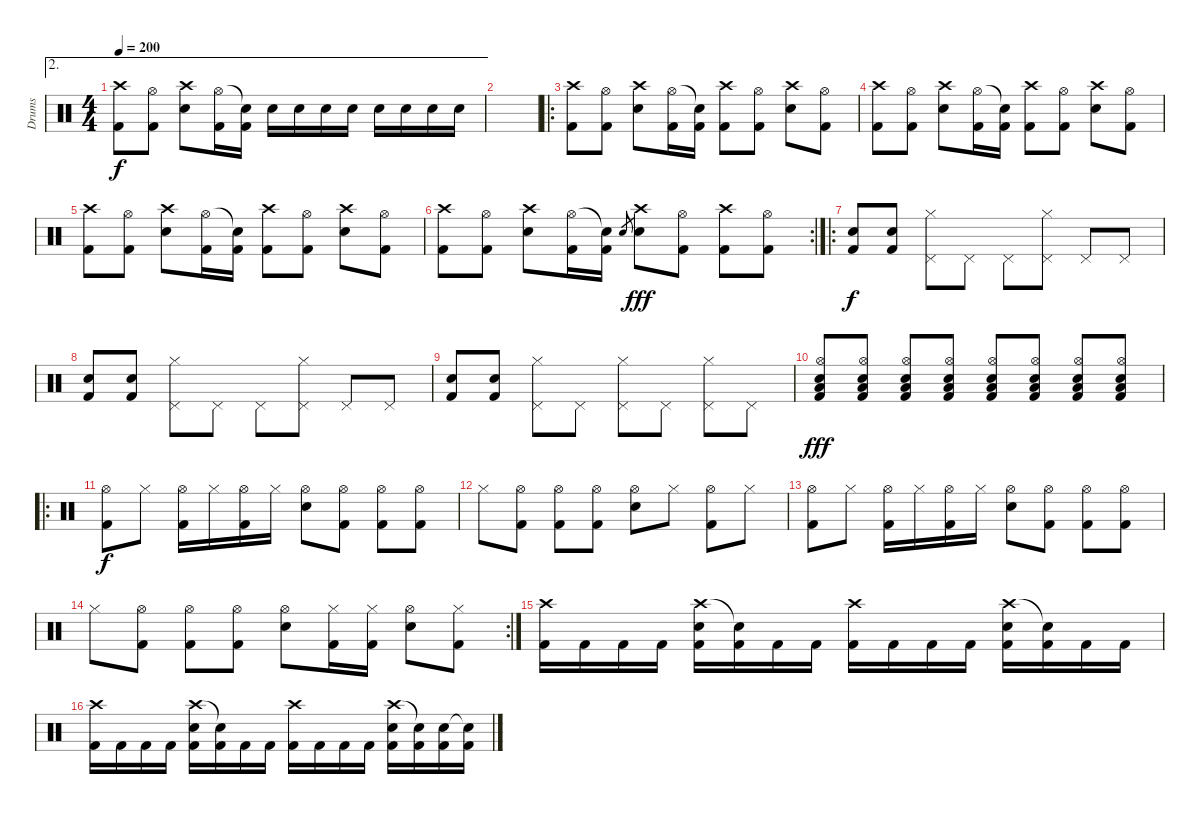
\track ("Drums" "Drums") {instrument percussion}
\staff {score}
\articulation defaults
\ae 2
\ts (4 4)
\tempo 200
\clef neutral
\ks c
("Crash high (hit)" "Kick (hit) 2").8{dy f} ("Hi-Hat (open)" "Kick (hit) 2").8 ("Crash high (hit)" "Electric Snare (hit)").8 ("Hi-Hat (open)" "Kick (hit) 2").16 ("Snare (hit)"{t} "Kick (hit) 2").16 "Electric Snare (hit)".16 "Electric Snare (hit)".16 "Electric Snare (hit)".16 "Electric Snare (hit)".16 "Electric Snare (hit)".16 "Electric Snare (hit)".16 "Electric Snare (hit)".16 "Electric Snare (hit)".16 |
|
\ro
("Crash high (hit)" "Kick (hit) 2").8 ("Hi-Hat (open)" "Kick (hit) 2").8 ("Crash high (hit)" "Electric Snare (hit)").8 ("Hi-Hat (open)" "Kick (hit) 2").16 ("Snare (hit)"{t} "Kick (hit) 2").16 ("Crash high (hit)" "Kick (hit) 2").8 ("Hi-Hat (open)" "Kick (hit) 2").8 ("Crash high (hit)" "Electric Snare (hit)").8 ("Hi-Hat (open)" "Kick (hit) 2").8 |
("Crash high (hit)" "Kick (hit) 2").8 ("Hi-Hat (open)" "Kick (hit) 2").8 ("Crash high (hit)" "Electric Snare (hit)").8 ("Hi-Hat (open)" "Kick (hit) 2").16 ("Snare (hit)"{t} "Kick (hit) 2").16 ("Crash high (hit)" "Kick (hit) 2").8 ("Hi-Hat (open)" "Kick (hit) 2").8 ("Crash high (hit)" "Electric Snare (hit)").8 ("Hi-Hat (open)" "Kick (hit) 2").8 |
("Crash high (hit)" "Kick (hit) 2").8 ("Hi-Hat (open)" "Kick (hit) 2").8 ("Crash high (hit)" "Electric Snare (hit)").8 ("Hi-Hat (open)" "Kick (hit) 2").16 ("Snare (hit)"{t} "Kick (hit) 2").16 ("Crash high (hit)" "Kick (hit) 2").8 ("Hi-Hat (open)" "Kick (hit) 2").8 ("Crash high (hit)" "Electric Snare (hit)").8 ("Hi-Hat (open)" "Kick (hit) 2").8 |
\rc 2
("Crash high (hit)" "Kick (hit) 2").8 ("Hi-Hat (open)" "Kick (hit) 2").8 ("Crash high (hit)" "Electric Snare (hit)").8 ("Hi-Hat (open)" "Kick (hit) 2").16 ("Snare (hit)"{t} "Kick (hit) 2").16 "Electric Snare (hit)".8{gr} ("Crash high (hit)" "Electric Snare (hit)").8{dy fff} ("Hi-Hat (open)" "Kick (hit) 2").8 ("Crash high (hit)" "Kick (hit) 2").8 ("Hi-Hat (open)" "Kick (hit) 2").8 |
\ro
("Electric Snare (hit)" "Kick (hit) 2").8{dy f} ("Electric Snare (hit)" "Kick (hit) 2").8 ("Hi-Hat (closed)" "Pedal Hi-Hat (hit)").8 "Pedal Hi-Hat (hit)".8 "Pedal Hi-Hat (hit)".8 ("Hi-Hat (closed)" "Pedal Hi-Hat (hit)").8 "Pedal Hi-Hat (hit)".8 "Pedal Hi-Hat (hit)".8 |
("Electric Snare (hit)" "Kick (hit) 2").8 ("Electric Snare (hit)" "Kick (hit) 2").8 ("Hi-Hat (closed)" "Pedal Hi-Hat (hit)").8 "Pedal Hi-Hat (hit)".8 "Pedal Hi-Hat (hit)".8 ("Hi-Hat (closed)" "Pedal Hi-Hat (hit)").8 "Pedal Hi-Hat (hit)".8 "Pedal Hi-Hat (hit)".8 |
("Electric Snare (hit)" "Kick (hit) 2").8 ("Electric Snare (hit)" "Kick (hit) 2").8 ("Hi-Hat (closed)" "Pedal Hi-Hat (hit)").8 "Pedal Hi-Hat (hit)".8 ("Hi-Hat (closed)" "Pedal Hi-Hat (hit)").8 "Pedal Hi-Hat (hit)".8 ("Hi-Hat (closed)" "Pedal Hi-Hat (hit)").8 "Pedal Hi-Hat (hit)".8 |
("Hi-Hat (open)" "Low Floor Tom (hit)" "Electric Snare (hit)" "Kick (hit) 2").8{dy fff} ("Hi-Hat (open)" "Low Floor Tom (hit)" "Electric Snare (hit)" "Kick (hit) 2").8 ("Hi-Hat (open)" "Low Floor Tom (hit)" "Electric Snare (hit)" "Kick (hit) 2").8 ("Hi-Hat (open)" "Low Floor Tom (hit)" "Electric Snare (hit)" "Kick (hit) 2").8 ("Hi-Hat (open)" "Low Floor Tom (hit)" "Electric Snare (hit)" "Kick (hit) 2").8 ("Hi-Hat (open)" "Low Floor Tom (hit)" "Electric Snare (hit)" "Kick (hit) 2").8 ("Hi-Hat (open)" "Low Floor Tom (hit)" "Electric Snare (hit)" "Kick (hit) 2").8 ("Hi-Hat (open)" "Low Floor Tom (hit)" "Electric Snare (hit)" "Kick (hit) 2").8 |
\ro
("Hi-Hat (open)" "Kick (hit) 2").8{dy f} "Hi-Hat (closed)".8 ("Hi-Hat (open)" "Kick (hit) 2").16 "Hi-Hat (closed)".16 ("Hi-Hat (open)" "Kick (hit) 2").16 "Hi-Hat (closed)".16 ("Hi-Hat (open)" "Electric Snare (hit)").8 ("Hi-Hat (open)" "Kick (hit) 2").8 ("Hi-Hat (open)" "Kick (hit) 2").8 ("Hi-Hat (open)" "Kick (hit) 2").8 |
"Hi-Hat (closed)".8 ("Hi-Hat (open)" "Kick (hit) 2").8 ("Hi-Hat (open)" "Kick (hit) 2").8 ("Hi-Hat (open)" "Kick (hit) 2").8 ("Hi-Hat (open)" "Electric Snare (hit)").8 "Hi-Hat (closed)".8 ("Hi-Hat (open)" "Kick (hit) 2").8 "Hi-Hat (closed)".8 |
("Hi-Hat (open)" "Kick (hit) 2").8 "Hi-Hat (closed)".8 ("Hi-Hat (open)" "Kick (hit) 2").16 "Hi-Hat (closed)".16 ("Hi-Hat (open)" "Kick (hit) 2").16 "Hi-Hat (closed)".16 ("Hi-Hat (open)" "Electric Snare (hit)").8 ("Hi-Hat (open)" "Kick (hit) 2").8 ("Hi-Hat (open)" "Kick (hit) 2").8 ("Hi-Hat (open)" "Kick (hit) 2").8 |
\rc 2 "Hi-Hat (closed)".8
("Hi-Hat (open)" "Kick (hit) 2").8 ("Hi-Hat (open)" "Kick (hit) 2").8 ("Hi-Hat (open)" "Kick (hit) 2").8 ("Hi-Hat (open)" "Electric Snare (hit)").8 ("Hi-Hat (closed)" "Kick (hit) 2").16 ("Hi-Hat (closed)" "Kick (hit) 2").16 ("Hi-Hat (open)" "Electric Snare (hit)").8 ("Hi-Hat (closed)" "Kick (hit) 2").8 |
("Crash high (hit)" "Kick (hit) 2").16 "Kick (hit) 2".16 "Kick (hit) 2".16 "Kick (hit) 2".16 ("Crash high (hit)" "Electric Snare (hit)" "Kick (hit) 2").16 ("Snare (hit)"{t} "Kick (hit) 2").16 "Kick (hit) 2".16 "Kick (hit) 2".16 ("Crash high (hit)" "Kick (hit) 2").16 "Kick (hit) 2".16 "Kick (hit) 2".16 "Kick (hit) 2".16 ("Crash high (hit)" "Electric Snare (hit)" "Kick (hit) 2").16 ("Snare (hit)"{t} "Kick (hit) 2").16 "Kick (hit) 2".16 "Kick (hit) 2".16 |
("Crash high (hit)" "Kick (hit) 2").16 "Kick (hit) 2".16 "Kick (hit) 2".16 "Kick (hit) 2".16 ("Crash high (hit)" "Electric Snare (hit)" "Kick (hit) 2").16 ("Snare (hit)"{t} "Kick (hit) 2").16 "Kick (hit) 2".16 "Kick (hit) 2".16 ("Crash high (hit)" "Kick (hit) 2").16 "Kick (hit) 2".16 "Kick (hit) 2".16 "Kick (hit) 2".16 ("Crash high (hit)" "Electric Snare (hit)" "Kick (hit) 2").16 ("Snare (hit)"{t} "Kick (hit) 2").16 ("Electric Snare (hit)" "Kick (hit) 2").16 ("Snare (hit)"{t} "Kick (hit) 2").16
